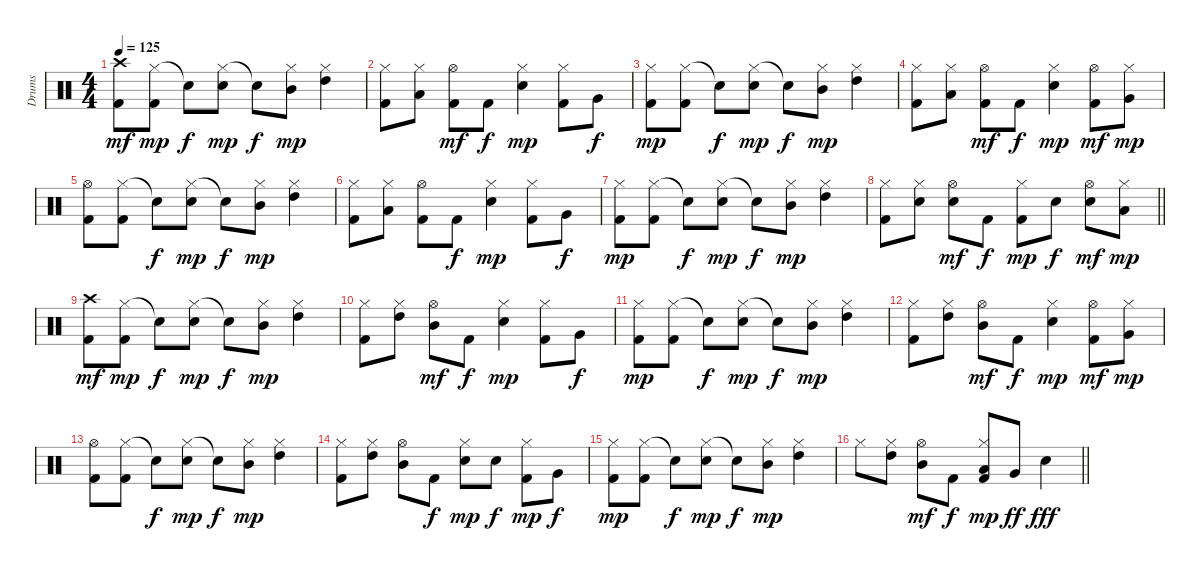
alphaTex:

\track ("Drums" "Drums") {instrument percussion}
\staff {score}
\articulation defaults
\ts (4 4)
\tempo 125
\clef neutral
\ks c
("Crash high (hit)" "Kick (hit) 2").8{dy mf} ("Hi-Hat (closed)" "Kick (hit) 2").8{dy mp} "Snare (hit)"{t}.8{dy f} ("Hi-Hat (closed)" "Snare (hit) 2").8{dy mp} "Snare (hit)"{t}.8{dy f} ("Hi-Hat (closed)" "Mid Tom (hit)").8{dy mp} ("Hi-Hat (closed)" "High Tom (hit)").4 |
("Hi-Hat (closed)" "Kick (hit) 2").8 ("Hi-Hat (closed)" "Low Tom (hit)").8 ("Hi-Hat (open)" "Kick (hit) 2").8{dy mf} "Kick (hit) 2".8{dy f} ("Hi-Hat (closed)" "Snare (hit) 2").4{dy mp} ("Hi-Hat (closed)" "Kick (hit) 2").8 "Very Low Tom (hit)".8{dy f} |
("Hi-Hat (closed)" "Kick (hit) 2").8{dy mp} ("Hi-Hat (closed)" "Kick (hit) 2").8 "Snare (hit)"{t}.8{dy f} ("Hi-Hat (closed)" "Snare (hit) 2").8{dy mp} "Snare (hit)"{t}.8{dy f} ("Hi-Hat (closed)" "Mid Tom (hit)").8{dy mp} ("Hi-Hat (closed)" "High Tom (hit)").4 |
("Hi-Hat (closed)" "Kick (hit) 2").8 ("Hi-Hat (closed)" "Low Tom (hit)").8 ("Hi-Hat (open)" "Kick (hit) 2").8{dy mf} "Kick (hit) 2".8{dy f} ("Hi-Hat (closed)" "Snare (hit) 2").4{dy mp} ("Hi-Hat (open)" "Kick (hit) 2").8{dy mf} ("Hi-Hat (closed)" "Very Low Tom (hit)").8{dy mp} |
("Hi-Hat (open)" "Kick (hit) 2").8 ("Hi-Hat (closed)" "Kick (hit) 2").8 "Snare (hit)"{t}.8{dy f} ("Hi-Hat (closed)" "Snare (hit) 2").8{dy mp} "Snare (hit)"{t}.8{dy f} ("Hi-Hat (closed)" "Mid Tom (hit)").8{dy mp} ("Hi-Hat (closed)" "High Tom (hit)").4 |
("Hi-Hat (closed)" "Kick (hit) 2").8 ("Hi-Hat (closed)" "Low Tom (hit)").8 ("Hi-Hat (open)" "Kick (hit) 2").8 "Kick (hit) 2".8{dy f} ("Hi-Hat (closed)" "Snare (hit) 2").4{dy mp} ("Hi-Hat (closed)" "Kick (hit) 2").8 "Very Low Tom (hit)".8{dy f} |
("Hi-Hat (closed)" "Kick (hit) 2").8{dy mp} ("Hi-Hat (closed)" "Kick (hit) 2").8 "Snare (hit)"{t}.8{dy f} ("Hi-Hat (closed)" "Snare (hit) 2").8{dy mp} "Snare (hit)"{t}.8{dy f} ("Hi-Hat (closed)" "Mid Tom (hit)").8{dy mp} ("Hi-Hat (closed)" "High Tom (hit)").4 |
\barLineRight lightlight
("Hi-Hat (closed)" "Kick (hit) 2").8 ("Hi-Hat (closed)" "Snare (hit) 2").8 ("Hi-Hat (open)" "Snare (hit) 2").8{dy mf} "Kick (hit) 2".8{dy f} ("Hi-Hat (closed)" "Kick (hit) 2").8{dy mp} "Snare (hit) 2".8{dy f} ("Hi-Hat (open)" "Snare (hit) 2").8{dy mf} ("Hi-Hat (closed)" "Low Tom (hit)").8{dy mp} |
\section ("" "")
("Crash high (hit)" "Kick (hit) 2").8{dy mf} ("Hi-Hat (closed)" "Kick (hit) 2").8{dy mp} "Snare (hit)"{t}.8{dy f} ("Hi-Hat (closed)" "Snare (hit) 2").8{dy mp} "Snare (hit)"{t}.8{dy f} ("Hi-Hat (closed)" "Mid Tom (hit)").8{dy mp} ("Hi-Hat (closed)" "High Tom (hit)").4 |
("Hi-Hat (closed)" "Kick (hit) 2").8 ("Hi-Hat (closed)" "High Tom (hit)").8 ("Hi-Hat (open)" "Mid Tom (hit)").8{dy mf} "Kick (hit) 2".8{dy f} ("Hi-Hat (closed)" "Snare (hit) 2").4{dy mp} ("Hi-Hat (closed)" "Kick (hit) 2").8 "Very Low Tom (hit)".8{dy f} |
("Hi-Hat (closed)" "Kick (hit) 2").8{dy mp} ("Hi-Hat (closed)" "Kick (hit) 2").8 "Snare (hit)"{t}.8{dy f} ("Hi-Hat (closed)" "Snare (hit) 2").8{dy mp} "Snare (hit)"{t}.8{dy f} ("Hi-Hat (closed)" "Mid Tom (hit)").8{dy mp} ("Hi-Hat (closed)" "High Tom (hit)").4 |
("Hi-Hat (closed)" "Kick (hit) 2").8 ("Hi-Hat (closed)" "High Tom (hit)").8 ("Hi-Hat (open)" "Mid Tom (hit)").8{dy mf} "Kick (hit) 2".8{dy f} ("Hi-Hat (closed)" "Snare (hit) 2").4{dy mp} ("Hi-Hat (open)" "Kick (hit) 2").8{dy mf} ("Hi-Hat (closed)" "Very Low Tom (hit)").8{dy mp} |
("Hi-Hat (open)" "Kick (hit) 2").8 ("Hi-Hat (closed)" "Kick (hit) 2").8 "Snare (hit)"{t}.8{dy f} ("Hi-Hat (closed)" "Snare (hit) 2").8{dy mp} "Snare (hit)"{t}.8{dy f} ("Hi-Hat (closed)" "Mid Tom (hit)").8{dy mp} ("Hi-Hat (closed)" "High Tom (hit)").4 |
("Hi-Hat (closed)" "Kick (hit) 2").8 ("Hi-Hat (closed)" "High Tom (hit)").8 ("Hi-Hat (open)" "Mid Tom (hit)").8 "Kick (hit) 2".8{dy f} ("Hi-Hat (closed)" "Snare (hit) 2").8{dy mp} "Snare (hit) 2".8{dy f} ("Hi-Hat (closed)" "Kick (hit) 2").8{dy mp} "Very Low Tom (hit)".8{dy f} |
("Hi-Hat (closed)" "Kick (hit) 2").8{dy mp} ("Hi-Hat (closed)" "Kick (hit) 2").8 "Snare (hit)"{t}.8{dy f} ("Hi-Hat (closed)" "Snare (hit) 2").8{dy mp} "Snare (hit)"{t}.8{dy f} ("Hi-Hat (closed)" "Mid Tom (hit)").8{dy mp} ("Hi-Hat (closed)" "High Tom (hit)").4 |
\barLineRight lightlight "Hi-Hat (closed)".8
("Hi-Hat (closed)" "High Tom (hit)").8 ("Hi-Hat (open)" "Mid Tom (hit)").8{dy mf} "Kick (hit) 2".8{dy f} ("Hi-Hat (closed)" "Low Tom (hit)" "Kick (hit) 2").8{dy mp} "Very Low Tom (hit)".8{dy ff} "Snare (hit) 2".4{dy fff}
